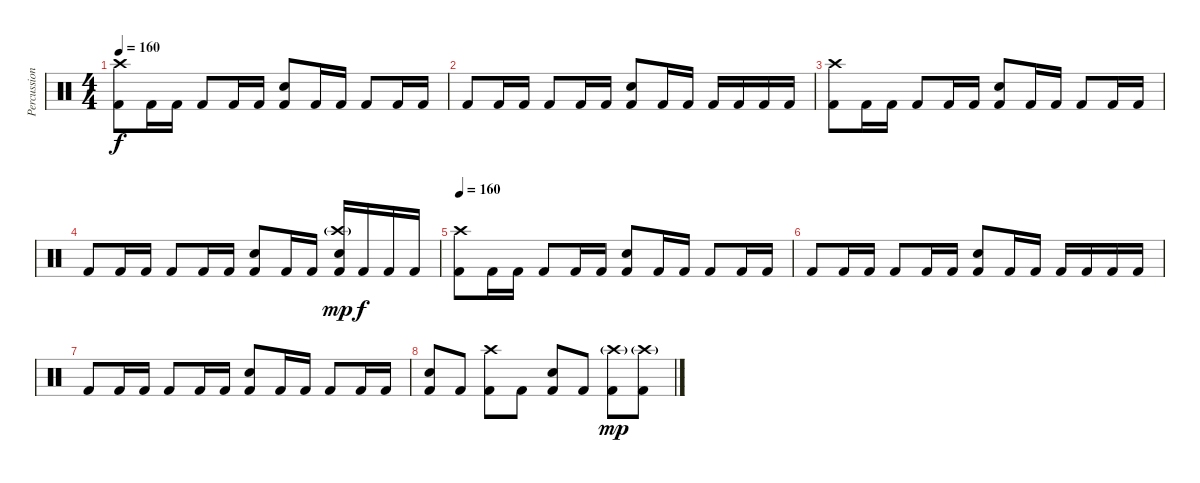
\track ("Percussion" "Percussion") {instrument percussion}
\staff {score}
\articulation defaults
\ts (4 4)
\tempo 160
\clef neutral
\ks c
("Kick (hit) 2" "Crash high (hit)").8{dy f} "Kick (hit) 2".16 "Kick (hit) 2".16 "Kick (hit) 2".8 "Kick (hit) 2".16 "Kick (hit) 2".16 ("Kick (hit) 2" "Snare (hit) 2").8 "Kick (hit) 2".16 "Kick (hit) 2".16 "Kick (hit) 2".8 "Kick (hit) 2".16 "Kick (hit) 2".16 |
"Kick (hit) 2".8 "Kick (hit) 2".16 "Kick (hit) 2".16 "Kick (hit) 2".8 "Kick (hit) 2".16 "Kick (hit) 2".16 ("Kick (hit) 2" "Snare (hit) 2").8 "Kick (hit) 2".16 "Kick (hit) 2".16 "Kick (hit) 2".16 "Kick (hit) 2".16 "Kick (hit) 2".16 "Kick (hit) 2".16 |
("Kick (hit) 2" "Crash high (hit)").8 "Kick (hit) 2".16 "Kick (hit) 2".16 "Kick (hit) 2".8 "Kick (hit) 2".16 "Kick (hit) 2".16 ("Kick (hit) 2" "Snare (hit) 2").8 "Kick (hit) 2".16 "Kick (hit) 2".16 "Kick (hit) 2".8 "Kick (hit) 2".16 "Kick (hit) 2".16 |
"Kick (hit) 2".8 "Kick (hit) 2".16 "Kick (hit) 2".16 "Kick (hit) 2".8 "Kick (hit) 2".16 "Kick (hit) 2".16 ("Kick (hit) 2" "Snare (hit) 2").8 "Kick (hit) 2".16 "Kick (hit) 2".16 ("Kick (hit) 2" "Snare (hit) 2" "Crash high (hit)"{g}).16{dy mp} "Kick (hit) 2".16{dy f} "Kick (hit) 2".16 "Kick (hit) 2".16 |
\tempo 160
("Kick (hit) 2" "Crash high (hit)").8 "Kick (hit) 2".16 "Kick (hit) 2".16 "Kick (hit) 2".8 "Kick (hit) 2".16 "Kick (hit) 2".16 ("Kick (hit) 2" "Snare (hit) 2").8 "Kick (hit) 2".16 "Kick (hit) 2".16 "Kick (hit) 2".8 "Kick (hit) 2".16 "Kick (hit) 2".16 |
"Kick (hit) 2".8 "Kick (hit) 2".16 "Kick (hit) 2".16 "Kick (hit) 2".8 "Kick (hit) 2".16 "Kick (hit) 2".16 ("Kick (hit) 2" "Snare (hit) 2").8 "Kick (hit) 2".16 "Kick (hit) 2".16 "Kick (hit) 2".16 "Kick (hit) 2".16 "Kick (hit) 2".16 "Kick (hit) 2".16 |
"Kick (hit) 2".8 "Kick (hit) 2".16 "Kick (hit) 2".16 "Kick (hit) 2".8 "Kick (hit) 2".16 "Kick (hit) 2".16 ("Kick (hit) 2" "Snare (hit) 2").8 "Kick (hit) 2".16 "Kick (hit) 2".16 "Kick (hit) 2".8 "Kick (hit) 2".16 "Kick (hit) 2".16 |
("Kick (hit) 2" "Snare (hit) 2").8 "Kick (hit) 2".8 ("Kick (hit) 2" "Crash high (hit)").8 "Kick (hit) 2".8 ("Kick (hit) 2" "Snare (hit) 2").8 "Kick (hit) 2".8 ("Kick (hit) 2" "Crash high (hit)"{g}).8{dy mp} ("Kick (hit) 2" "Crash high (hit)"{g}).8
